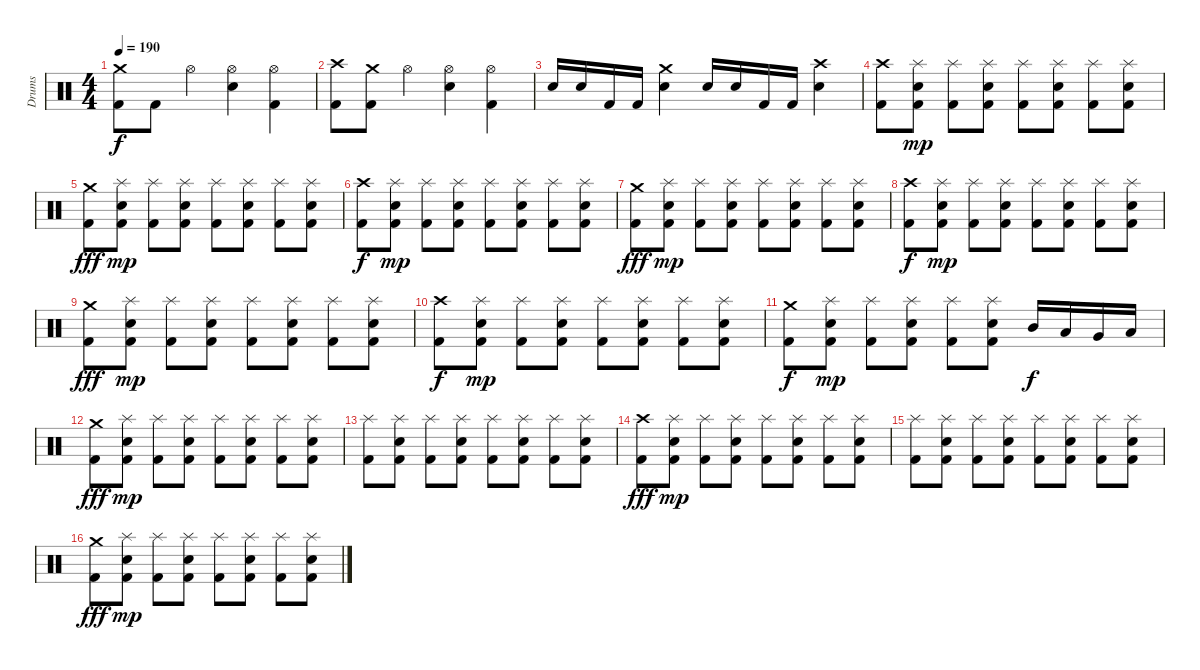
\track ("Drums" "Drums") {instrument percussion}
\staff {score}
\articulation defaults
\ts (4 4)
\tempo 190
\clef neutral
\ks c
("Crash medium (hit)" "Kick (hit) 2").8{dy f} "Kick (hit) 2".8 "Hi-Hat (open)".4 ("Hi-Hat (open)" "Snare (hit) 2").4 ("Hi-Hat (open)" "Kick (hit) 2").4 |
("Crash high (hit)" "Kick (hit) 2").8 ("Crash medium (hit)" "Kick (hit) 2").8 "Hi-Hat (open)".4 ("Hi-Hat (open)" "Snare (hit) 2").4 ("Hi-Hat (open)" "Kick (hit) 2").4 |
"Snare (hit) 2".16 "Snare (hit) 2".16 "Kick (hit) 2".16 "Kick (hit) 2".16 ("Crash medium (hit)" "Snare (hit) 2").4 "Snare (hit) 2".16 "Snare (hit) 2".16 "Kick (hit) 2".16 "Kick (hit) 2".16 ("Crash high (hit)" "Snare (hit) 2").4 |
("Crash high (hit)" "Kick (hit) 2").8 ("Splash (hit)" "Snare (hit) 2" "Kick (hit) 2").8{dy mp} ("Splash (hit)" "Kick (hit) 2").8 ("Splash (hit)" "Snare (hit) 2" "Kick (hit) 2").8 ("Splash (hit)" "Kick (hit) 2").8 ("Splash (hit)" "Snare (hit) 2" "Kick (hit) 2").8 ("Splash (hit)" "Kick (hit) 2").8 ("Splash (hit)" "Snare (hit) 2" "Kick (hit) 2").8 |
("Crash medium (hit)" "Kick (hit) 2").8{dy fff} ("Splash (hit)" "Snare (hit) 2" "Kick (hit) 2").8{dy mp} ("Splash (hit)" "Kick (hit) 2").8 ("Splash (hit)" "Snare (hit) 2" "Kick (hit) 2").8 ("Splash (hit)" "Kick (hit) 2").8 ("Splash (hit)" "Snare (hit) 2" "Kick (hit) 2").8 ("Splash (hit)" "Kick (hit) 2").8 ("Splash (hit)" "Snare (hit) 2" "Kick (hit) 2").8 |
("Crash high (hit)" "Kick (hit) 2").8{dy f} ("Splash (hit)" "Snare (hit) 2" "Kick (hit) 2").8{dy mp} ("Splash (hit)" "Kick (hit) 2").8 ("Splash (hit)" "Snare (hit) 2" "Kick (hit) 2").8 ("Splash (hit)" "Kick (hit) 2").8 ("Splash (hit)" "Snare (hit) 2" "Kick (hit) 2").8 ("Splash (hit)" "Kick (hit) 2").8 ("Splash (hit)" "Snare (hit) 2" "Kick (hit) 2").8 |
("Crash medium (hit)" "Kick (hit) 2").8{dy fff} ("Splash (hit)" "Snare (hit) 2" "Kick (hit) 2").8{dy mp} ("Splash (hit)" "Kick (hit) 2").8 ("Splash (hit)" "Snare (hit) 2" "Kick (hit) 2").8 ("Splash (hit)" "Kick (hit) 2").8 ("Splash (hit)" "Snare (hit) 2" "Kick (hit) 2").8 ("Splash (hit)" "Kick (hit) 2").8 ("Splash (hit)" "Snare (hit) 2" "Kick (hit) 2").8 |
("Crash high (hit)" "Kick (hit) 2").8{dy f} ("Splash (hit)" "Snare (hit) 2" "Kick (hit) 2").8{dy mp} ("Splash (hit)" "Kick (hit) 2").8 ("Splash (hit)" "Snare (hit) 2" "Kick (hit) 2").8 ("Splash (hit)" "Kick (hit) 2").8 ("Splash (hit)" "Snare (hit) 2" "Kick (hit) 2").8 ("Splash (hit)" "Kick (hit) 2").8 ("Splash (hit)" "Snare (hit) 2" "Kick (hit) 2").8 |
("Crash medium (hit)" "Kick (hit) 2").8{dy fff} ("Splash (hit)" "Snare (hit) 2" "Kick (hit) 2").8{dy mp} ("Splash (hit)" "Kick (hit) 2").8 ("Splash (hit)" "Snare (hit) 2" "Kick (hit) 2").8 ("Splash (hit)" "Kick (hit) 2").8 ("Splash (hit)" "Snare (hit) 2" "Kick (hit) 2").8 ("Splash (hit)" "Kick (hit) 2").8 ("Splash (hit)" "Snare (hit) 2" "Kick (hit) 2").8 |
("Crash high (hit)" "Kick (hit) 2").8{dy f} ("Splash (hit)" "Snare (hit) 2" "Kick (hit) 2").8{dy mp} ("Splash (hit)" "Kick (hit) 2").8 ("Splash (hit)" "Snare (hit) 2" "Kick (hit) 2").8 ("Splash (hit)" "Kick (hit) 2").8 ("Splash (hit)" "Snare (hit) 2" "Kick (hit) 2").8 ("Splash (hit)" "Kick (hit) 2").8 ("Splash (hit)" "Snare (hit) 2" "Kick (hit) 2").8 |
("Crash medium (hit)" "Kick (hit) 2").8{dy f} ("Splash (hit)" "Snare (hit) 2" "Kick (hit) 2").8{dy mp} ("Splash (hit)" "Kick (hit) 2").8 ("Splash (hit)" "Snare (hit) 2" "Kick (hit) 2").8 ("Splash (hit)" "Kick (hit) 2").8 ("Splash (hit)" "Snare (hit) 2" "Kick (hit) 2").8 "Mid Tom (hit)".16{dy f} "Low Tom (hit)".16 "Very Low Tom (hit)".16 "Low Floor Tom (hit)".16 |
("Crash medium (hit)" "Kick (hit) 2").8{dy fff} ("Splash (hit)" "Snare (hit) 2" "Kick (hit) 2").8{dy mp} ("Splash (hit)" "Kick (hit) 2").8 ("Splash (hit)" "Snare (hit) 2" "Kick (hit) 2").8 ("Splash (hit)" "Kick (hit) 2").8 ("Splash (hit)" "Snare (hit) 2" "Kick (hit) 2").8 ("Splash (hit)" "Kick (hit) 2").8 ("Splash (hit)" "Snare (hit) 2" "Kick (hit) 2").8 |
("Splash (hit)" "Kick (hit) 2").8 ("Splash (hit)" "Snare (hit) 2" "Kick (hit) 2").8 ("Splash (hit)" "Kick (hit) 2").8 ("Splash (hit)" "Snare (hit) 2" "Kick (hit) 2").8 ("Splash (hit)" "Kick (hit) 2").8 ("Splash (hit)" "Snare (hit) 2" "Kick (hit) 2").8 ("Splash (hit)" "Kick (hit) 2").8 ("Splash (hit)" "Snare (hit) 2" "Kick (hit) 2").8 |
("Crash high (hit)" "Kick (hit) 2").8{dy fff} ("Splash (hit)" "Snare (hit) 2" "Kick (hit) 2").8{dy mp} ("Splash (hit)" "Kick (hit) 2").8 ("Splash (hit)" "Snare (hit) 2" "Kick (hit) 2").8 ("Splash (hit)" "Kick (hit) 2").8 ("Splash (hit)" "Snare (hit) 2" "Kick (hit) 2").8 ("Splash (hit)" "Kick (hit) 2").8 ("Splash (hit)" "Snare (hit) 2" "Kick (hit) 2").8 |
("Splash (hit)" "Kick (hit) 2").8 ("Splash (hit)" "Snare (hit) 2" "Kick (hit) 2").8 ("Splash (hit)" "Kick (hit) 2").8 ("Splash (hit)" "Snare (hit) 2" "Kick (hit) 2").8 ("Splash (hit)" "Kick (hit) 2").8 ("Splash (hit)" "Snare (hit) 2" "Kick (hit) 2").8 ("Splash (hit)" "Kick (hit) 2").8 ("Splash (hit)" "Snare (hit) 2" "Kick (hit) 2").8 |
("Crash medium (hit)" "Kick (hit) 2").8{dy fff} ("Splash (hit)" "Snare (hit) 2" "Kick (hit) 2").8{dy mp} ("Splash (hit)" "Kick (hit) 2").8 ("Splash (hit)" "Snare (hit) 2" "Kick (hit) 2").8 ("Splash (hit)" "Kick (hit) 2").8 ("Splash (hit)" "Snare (hit) 2" "Kick (hit) 2").8 ("Splash (hit)" "Kick (hit) 2").8 ("Splash (hit)" "Snare (hit) 2" "Kick (hit) 2").8
